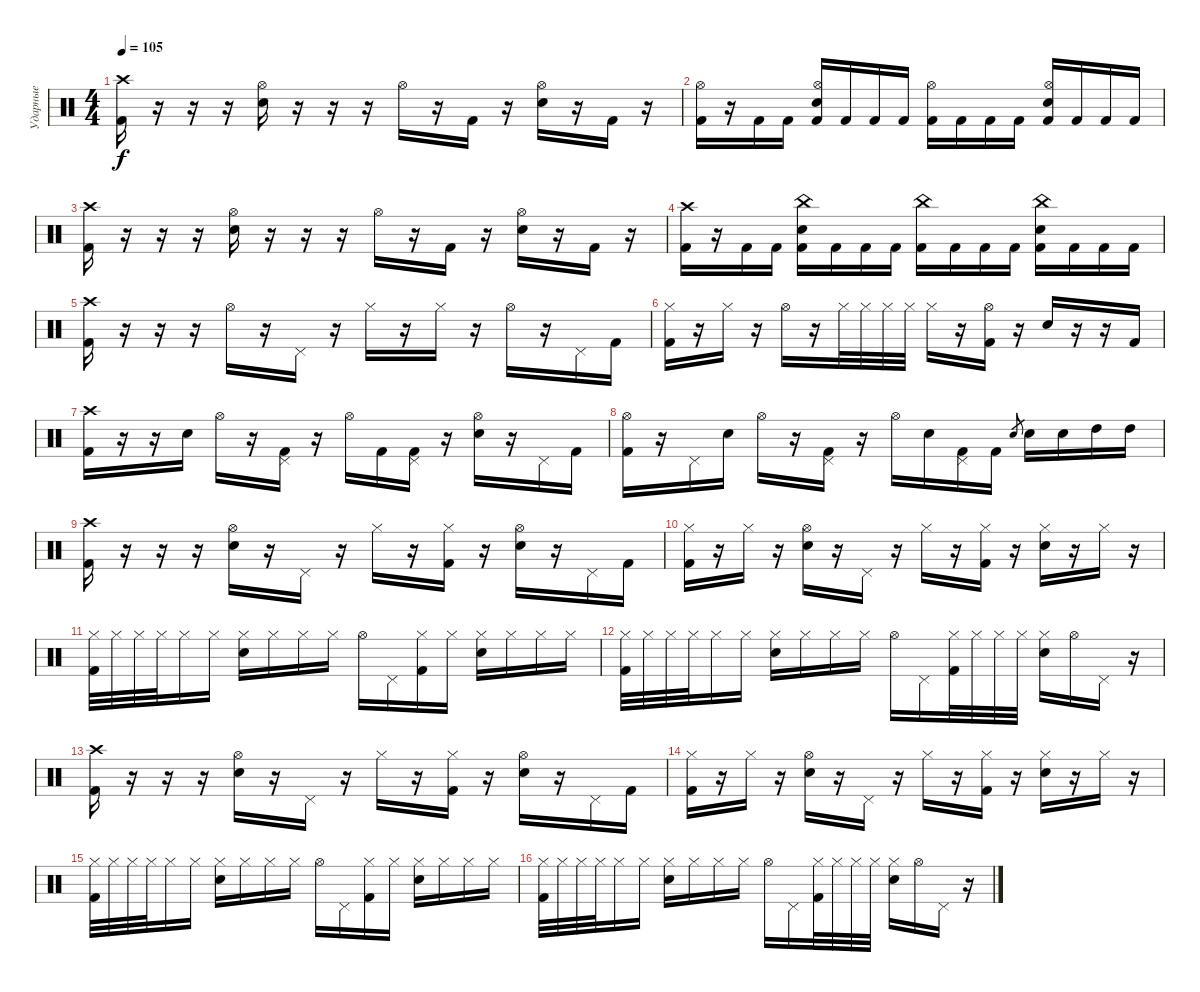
\track ("Ударные" "Ударные") {instrument percussion}
\staff {score}
\articulation defaults
\ts (4 4)
\tempo 105
\clef neutral
\ks c
("Crash high (hit)" "Kick (hit) 2").16{dy f} r.16 r.16 r.16 ("Hi-Hat (open)" "Electric Snare (hit)").16 r.16 r.16 r.16 "Hi-Hat (open)".16 r.16 "Kick (hit) 2".16 r.16 ("Hi-Hat (open)" "Electric Snare (hit)").16 r.16 "Kick (hit) 2".16 r.16 |
("Hi-Hat (open)" "Kick (hit) 2").16 r.16 "Kick (hit) 2".16 "Kick (hit) 2".16 ("Hi-Hat (open)" "Electric Snare (hit)" "Kick (hit) 2").16 "Kick (hit) 2".16 "Kick (hit) 2".16 "Kick (hit) 2".16 ("Hi-Hat (open)" "Kick (hit) 2").16 "Kick (hit) 2".16 "Kick (hit) 2".16 "Kick (hit) 2".16 ("Hi-Hat (open)" "Electric Snare (hit)" "Kick (hit) 2").16 "Kick (hit) 2".16 "Kick (hit) 2".16 "Kick (hit) 2".16 |
("Crash high (hit)" "Kick (hit) 2").16 r.16 r.16 r.16 ("Hi-Hat (open)" "Electric Snare (hit)").16 r.16 r.16 r.16 "Hi-Hat (open)".16 r.16 "Kick (hit) 2".16 r.16 ("Hi-Hat (open)" "Electric Snare (hit)").16 r.16 "Kick (hit) 2".16 r.16 |
("Crash high (hit)" "Kick (hit) 2").16 r.16 "Kick (hit) 2".16 "Kick (hit) 2".16 ("China (hit)" "Electric Snare (hit)" "Kick (hit) 2").16 "Kick (hit) 2".16 "Kick (hit) 2".16 "Kick (hit) 2".16 ("China (hit)" "Kick (hit) 2").16 "Kick (hit) 2".16 "Kick (hit) 2".16 "Kick (hit) 2".16 ("China (hit)" "Electric Snare (hit)" "Kick (hit) 2").16 "Kick (hit) 2".16 "Kick (hit) 2".16 "Kick (hit) 2".16 |
("Crash high (hit)" "Kick (hit) 2").16 r.16 r.16 r.16 "Hi-Hat (open)".16 r.16 "Pedal Hi-Hat (hit)".16 r.16 "Hi-Hat (closed)".16 r.16 "Hi-Hat (closed)".16 r.16 "Hi-Hat (open)".16 r.16 "Pedal Hi-Hat (hit)".16 "Kick (hit) 2".16 |
("Hi-Hat (closed)" "Kick (hit) 2").16 r.16 "Hi-Hat (closed)".16 r.16 "Hi-Hat (open)".16 r.16 "Hi-Hat (closed)".32 "Hi-Hat (closed)".32 "Hi-Hat (closed)".32 "Hi-Hat (closed)".32 "Hi-Hat (closed)".16 r.16 ("Hi-Hat (open)" "Kick (hit) 2").16 r.16 "Electric Snare (hit)".16 r.16 r.16 "Kick (hit) 2".16 |
("Crash high (hit)" "Kick (hit) 2").16 r.16 r.16 "Electric Snare (hit)".16 "Hi-Hat (open)".16 r.16 ("Pedal Hi-Hat (hit)" "Kick (hit) 2").16 r.16 "Hi-Hat (open)".16 "Kick (hit) 2".16 ("Pedal Hi-Hat (hit)" "Kick (hit) 2").16 r.16 ("Hi-Hat (open)" "Electric Snare (hit)").16 r.16 "Pedal Hi-Hat (hit)".16 "Kick (hit) 2".16 |
("Hi-Hat (open)" "Kick (hit) 2").16 r.16 "Pedal Hi-Hat (hit)".16 "Electric Snare (hit)".16 "Hi-Hat (open)".16 r.16 ("Pedal Hi-Hat (hit)" "Kick (hit) 2").16 r.16 "Hi-Hat (open)".16 "Electric Snare (hit)".16 ("Pedal Hi-Hat (hit)" "Kick (hit) 2").16 "Kick (hit) 2".16 "Electric Snare (hit)".8{gr} "Electric Snare (hit)".16 "Electric Snare (hit)".16 "High Tom (hit)".16 "High Tom (hit)".16 |
("Crash high (hit)" "Kick (hit) 2").16 r.16 r.16 r.16 ("Hi-Hat (open)" "Electric Snare (hit)").16 r.16 "Pedal Hi-Hat (hit)".16 r.16 "Hi-Hat (closed)".16 r.16 ("Hi-Hat (closed)" "Kick (hit) 2").16 r.16 ("Hi-Hat (open)" "Electric Snare (hit)").16 r.16 "Pedal Hi-Hat (hit)".16 "Kick (hit) 2".16 |
("Hi-Hat (closed)" "Kick (hit) 2").16 r.16 "Hi-Hat (closed)".16 r.16 ("Hi-Hat (open)" "Electric Snare (hit)").16 r.16 "Pedal Hi-Hat (hit)".16 r.16 "Hi-Hat (closed)".16 r.16 ("Hi-Hat (closed)" "Kick (hit) 2").16 r.16 ("Hi-Hat (closed)" "Electric Snare (hit)").16 r.16 "Hi-Hat (closed)".16 r.16 |
("Hi-Hat (closed)" "Kick (hit) 2").32 "Hi-Hat (closed)".32 "Hi-Hat (closed)".32 "Hi-Hat (closed)".32 "Hi-Hat (closed)".16 "Hi-Hat (closed)".16 ("Hi-Hat (closed)" "Electric Snare (hit)").16 "Hi-Hat (closed)".16 "Hi-Hat (closed)".16 "Hi-Hat (closed)".16 "Hi-Hat (open)".16 "Pedal Hi-Hat (hit)".16 ("Hi-Hat (closed)" "Kick (hit) 2").16 "Hi-Hat (closed)".16 ("Hi-Hat (closed)" "Electric Snare (hit)").16 "Hi-Hat (closed)".16 "Hi-Hat (closed)".16 "Hi-Hat (closed)".16 |
("Hi-Hat (closed)" "Kick (hit) 2").32 "Hi-Hat (closed)".32 "Hi-Hat (closed)".32 "Hi-Hat (closed)".32 "Hi-Hat (closed)".16 "Hi-Hat (closed)".16 ("Hi-Hat (closed)" "Electric Snare (hit)").16 "Hi-Hat (closed)".16 "Hi-Hat (closed)".16 "Hi-Hat (closed)".16 "Hi-Hat (open)".16 "Pedal Hi-Hat (hit)".16 ("Hi-Hat (closed)" "Kick (hit) 2").32 "Hi-Hat (closed)".32 "Hi-Hat (closed)".32 "Hi-Hat (closed)".32 ("Hi-Hat (closed)" "Electric Snare (hit)").16 "Hi-Hat (open)".16 "Pedal Hi-Hat (hit)".16 r.16 |
("Crash high (hit)" "Kick (hit) 2").16 r.16 r.16 r.16 ("Hi-Hat (open)" "Electric Snare (hit)").16 r.16 "Pedal Hi-Hat (hit)".16 r.16 "Hi-Hat (closed)".16 r.16 ("Hi-Hat (closed)" "Kick (hit) 2").16 r.16 ("Hi-Hat (open)" "Electric Snare (hit)").16 r.16 "Pedal Hi-Hat (hit)".16 "Kick (hit) 2".16 |
("Hi-Hat (closed)" "Kick (hit) 2").16 r.16 "Hi-Hat (closed)".16 r.16 ("Hi-Hat (open)" "Electric Snare (hit)").16 r.16 "Pedal Hi-Hat (hit)".16 r.16 "Hi-Hat (closed)".16 r.16 ("Hi-Hat (closed)" "Kick (hit) 2").16 r.16 ("Hi-Hat (closed)" "Electric Snare (hit)").16 r.16 "Hi-Hat (closed)".16 r.16 |
("Hi-Hat (closed)" "Kick (hit) 2").32 "Hi-Hat (closed)".32 "Hi-Hat (closed)".32 "Hi-Hat (closed)".32 "Hi-Hat (closed)".16 "Hi-Hat (closed)".16 ("Hi-Hat (closed)" "Electric Snare (hit)").16 "Hi-Hat (closed)".16 "Hi-Hat (closed)".16 "Hi-Hat (closed)".16 "Hi-Hat (open)".16 "Pedal Hi-Hat (hit)".16 ("Hi-Hat (closed)" "Kick (hit) 2").16 "Hi-Hat (closed)".16 ("Hi-Hat (closed)" "Electric Snare (hit)").16 "Hi-Hat (closed)".16 "Hi-Hat (closed)".16 "Hi-Hat (closed)".16 |
("Hi-Hat (closed)" "Kick (hit) 2").32 "Hi-Hat (closed)".32 "Hi-Hat (closed)".32 "Hi-Hat (closed)".32 "Hi-Hat (closed)".16 "Hi-Hat (closed)".16 ("Hi-Hat (closed)" "Electric Snare (hit)").16 "Hi-Hat (closed)".16 "Hi-Hat (closed)".16 "Hi-Hat (closed)".16 "Hi-Hat (open)".16 "Pedal Hi-Hat (hit)".16 ("Hi-Hat (closed)" "Kick (hit) 2").32 "Hi-Hat (closed)".32 "Hi-Hat (closed)".32 "Hi-Hat (closed)".32 ("Hi-Hat (closed)" "Electric Snare (hit)").16 "Hi-Hat (open)".16 "Pedal Hi-Hat (hit)".16 r.16
